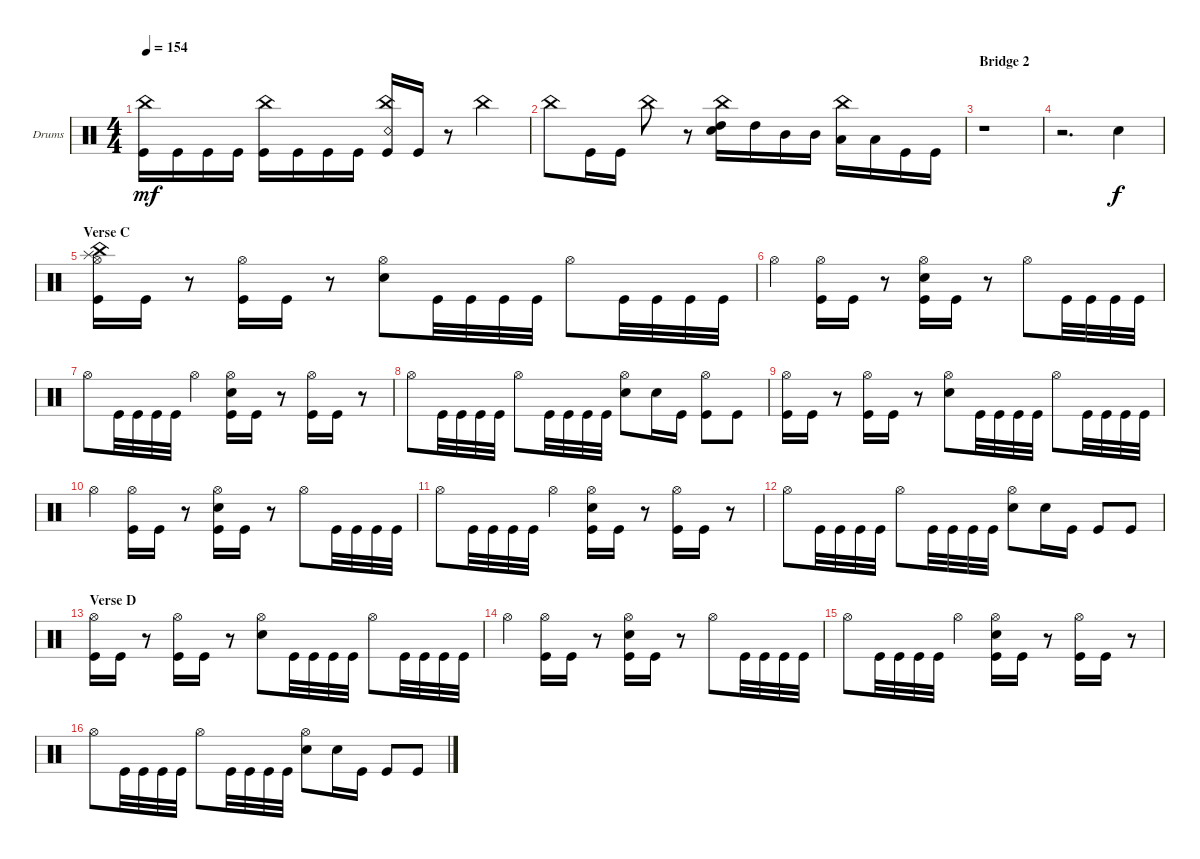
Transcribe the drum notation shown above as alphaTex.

\defaultSystemsLayout 4
\bracketExtendMode groupsimilarinstruments
\firstSystemTrackNameOrientation horizontal
\otherSystemsTrackNameOrientation horizontal
\track ("Drums" "Drums") {instrument percussion}
\staff {score}
\articulation defaults
\ts (4 4)
\tempo 154
\clef neutral
\ks c
("Kick (hit)" "China (hit)").16{dy mf} "Kick (hit)".16 "Kick (hit)".16 "Kick (hit)".16 ("Kick (hit)" "China (hit)").16 "Kick (hit)".16 "Kick (hit)".16 "Kick (hit)".16 ("Kick (hit)" "Snare (rim shot)" "China (hit)").16 "Kick (hit)".16 r.8 "China (hit)".4 |
"China (hit)".8 "Kick (hit)".16 "Kick (hit)".16 "China (hit)".8 r.8 ("High Tom (hit)" "Snare (hit) 2" "China (hit)").16 "High Tom (hit)".16 "Mid Tom (hit)".16 "Mid Tom (hit)".16 ("Low Tom (hit)" "China (hit)").16 "Low Tom (hit)".16 "Kick (hit)".16 "Kick (hit)".16 |
\section ("" "Bridge 2")
r.1 |
r.2{d} "Snare (hit) 2".4{dy f} |
\section ("" "Verse C")
("Hi-Hat (open)" "Kick (hit)" "Splash (hit)" "China (hit)").16 "Kick (hit)".16 r.8 ("Kick (hit)" "Hi-Hat (open)").16 "Kick (hit)".16 r.8 ("Hi-Hat (open)" "Snare (hit) 2").8 "Kick (hit)".32 "Kick (hit)".32 "Kick (hit)".32 "Kick (hit)".32 "Hi-Hat (open)".8 "Kick (hit)".32 "Kick (hit)".32 "Kick (hit)".32 "Kick (hit)".32 |
"Hi-Hat (open)".4 ("Kick (hit)" "Hi-Hat (open)").16 "Kick (hit)".16 r.8 ("Kick (hit)" "Hi-Hat (open)" "Snare (hit) 2").16 "Kick (hit)".16 r.8 "Hi-Hat (open)".8 "Kick (hit)".32 "Kick (hit)".32 "Kick (hit)".32 "Kick (hit)".32 |
"Hi-Hat (open)".8 "Kick (hit)".32 "Kick (hit)".32 "Kick (hit)".32 "Kick (hit)".32 "Hi-Hat (open)".4 ("Kick (hit)" "Hi-Hat (open)" "Snare (hit) 2").16 "Kick (hit)".16 r.8 ("Kick (hit)" "Hi-Hat (open)").16 "Kick (hit)".16 r.8 |
"Hi-Hat (open)".8 "Kick (hit)".32 "Kick (hit)".32 "Kick (hit)".32 "Kick (hit)".32 "Hi-Hat (open)".8 "Kick (hit)".32 "Kick (hit)".32 "Kick (hit)".32 "Kick (hit)".32 ("Hi-Hat (open)" "Snare (hit) 2").8 "Snare (hit) 2".16 "Kick (hit)".16 ("Kick (hit)" "Hi-Hat (open)").8 "Kick (hit)".8 |
("Hi-Hat (open)" "Kick (hit)").16 "Kick (hit)".16 r.8 ("Kick (hit)" "Hi-Hat (open)").16 "Kick (hit)".16 r.8 ("Hi-Hat (open)" "Snare (hit) 2").8 "Kick (hit)".32 "Kick (hit)".32 "Kick (hit)".32 "Kick (hit)".32 "Hi-Hat (open)".8 "Kick (hit)".32 "Kick (hit)".32 "Kick (hit)".32 "Kick (hit)".32 |
"Hi-Hat (open)".4 ("Kick (hit)" "Hi-Hat (open)").16 "Kick (hit)".16 r.8 ("Kick (hit)" "Hi-Hat (open)" "Snare (hit) 2").16 "Kick (hit)".16 r.8 "Hi-Hat (open)".8 "Kick (hit)".32 "Kick (hit)".32 "Kick (hit)".32 "Kick (hit)".32 |
"Hi-Hat (open)".8 "Kick (hit)".32 "Kick (hit)".32 "Kick (hit)".32 "Kick (hit)".32 "Hi-Hat (open)".4 ("Kick (hit)" "Hi-Hat (open)" "Snare (hit) 2").16 "Kick (hit)".16 r.8 ("Kick (hit)" "Hi-Hat (open)").16 "Kick (hit)".16 r.8 |
"Hi-Hat (open)".8 "Kick (hit)".32 "Kick (hit)".32 "Kick (hit)".32 "Kick (hit)".32 "Hi-Hat (open)".8 "Kick (hit)".32 "Kick (hit)".32 "Kick (hit)".32 "Kick (hit)".32 ("Hi-Hat (open)" "Snare (hit) 2").8 "Snare (hit) 2".16 "Kick (hit)".16 "Kick (hit)".8 "Kick (hit)".8 |
\section ("" "Verse D")
("Hi-Hat (open)" "Kick (hit)").16 "Kick (hit)".16 r.8 ("Kick (hit)" "Hi-Hat (open)").16 "Kick (hit)".16 r.8 ("Hi-Hat (open)" "Snare (hit) 2").8 "Kick (hit)".32 "Kick (hit)".32 "Kick (hit)".32 "Kick (hit)".32 "Hi-Hat (open)".8 "Kick (hit)".32 "Kick (hit)".32 "Kick (hit)".32 "Kick (hit)".32 |
"Hi-Hat (open)".4 ("Kick (hit)" "Hi-Hat (open)").16 "Kick (hit)".16 r.8 ("Kick (hit)" "Hi-Hat (open)" "Snare (hit) 2").16 "Kick (hit)".16 r.8 "Hi-Hat (open)".8 "Kick (hit)".32 "Kick (hit)".32 "Kick (hit)".32 "Kick (hit)".32 |
"Hi-Hat (open)".8 "Kick (hit)".32 "Kick (hit)".32 "Kick (hit)".32 "Kick (hit)".32 "Hi-Hat (open)".4 ("Kick (hit)" "Hi-Hat (open)" "Snare (hit) 2").16 "Kick (hit)".16 r.8 ("Kick (hit)" "Hi-Hat (open)").16 "Kick (hit)".16 r.8 |
"Hi-Hat (open)".8 "Kick (hit)".32 "Kick (hit)".32 "Kick (hit)".32 "Kick (hit)".32 "Hi-Hat (open)".8 "Kick (hit)".32 "Kick (hit)".32 "Kick (hit)".32 "Kick (hit)".32 ("Hi-Hat (open)" "Snare (hit) 2").8 "Snare (hit) 2".16 "Kick (hit)".16 "Kick (hit)".8 "Kick (hit)".8
